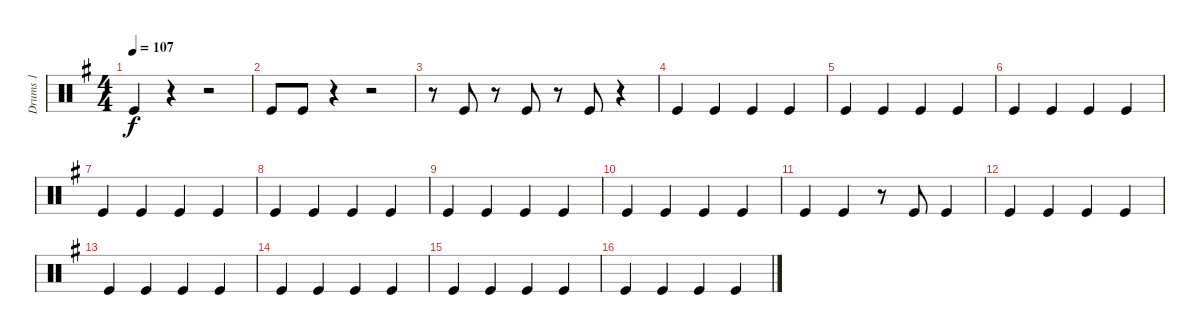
\track ("Drums 1" "Drums 1") {instrument percussion}
\staff {score}
\articulation defaults
\ts (4 4)
\tempo 107
\clef neutral
\ks g "Kick (hit)".4{dy f}
r.4 r.2 |
"Kick (hit)".8 "Kick (hit)".8 r.4 r.2 |
r.8 "Kick (hit)".8 r.8 "Kick (hit)".8 r.8 "Kick (hit)".8 r.4 |
"Kick (hit)".4 "Kick (hit)".4 "Kick (hit)".4 "Kick (hit)".4 |
"Kick (hit)".4 "Kick (hit)".4 "Kick (hit)".4 "Kick (hit)".4 |
"Kick (hit)".4 "Kick (hit)".4 "Kick (hit)".4 "Kick (hit)".4 |
"Kick (hit)".4 "Kick (hit)".4 "Kick (hit)".4 "Kick (hit)".4 |
"Kick (hit)".4 "Kick (hit)".4 "Kick (hit)".4 "Kick (hit)".4 |
"Kick (hit)".4 "Kick (hit)".4 "Kick (hit)".4 "Kick (hit)".4 |
"Kick (hit)".4 "Kick (hit)".4 "Kick (hit)".4 "Kick (hit)".4 |
"Kick (hit)".4 "Kick (hit)".4 r.8 "Kick (hit)".8 "Kick (hit)".4 |
"Kick (hit)".4 "Kick (hit)".4 "Kick (hit)".4 "Kick (hit)".4 |
"Kick (hit)".4 "Kick (hit)".4 "Kick (hit)".4 "Kick (hit)".4 |
"Kick (hit)".4 "Kick (hit)".4 "Kick (hit)".4 "Kick (hit)".4 |
"Kick (hit)".4 "Kick (hit)".4 "Kick (hit)".4 "Kick (hit)".4 |
"Kick (hit)".4 "Kick (hit)".4 "Kick (hit)".4 "Kick (hit)".4
